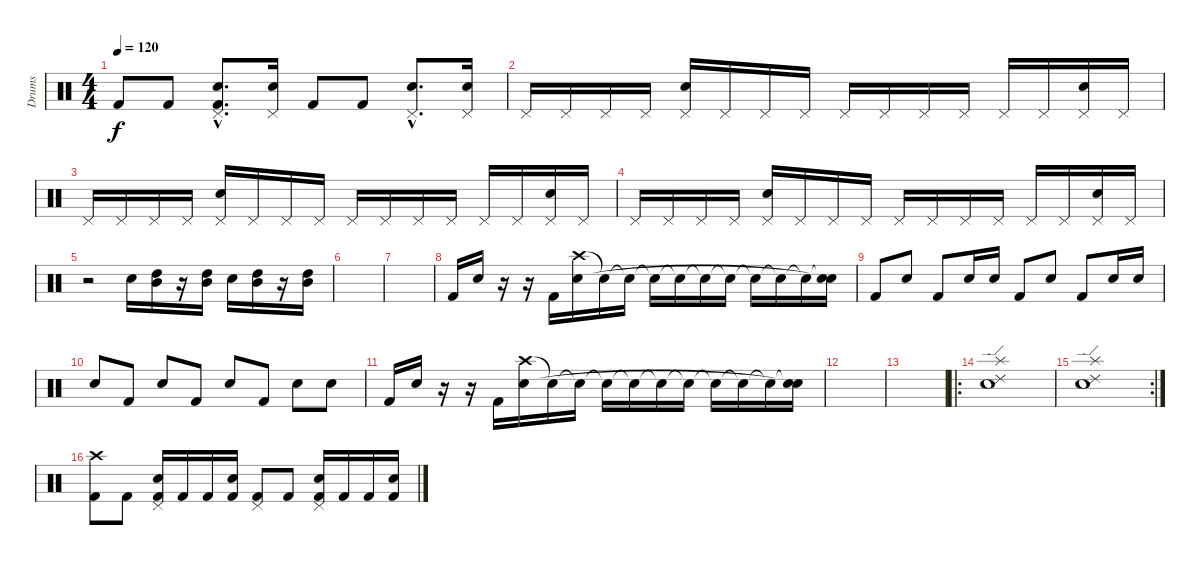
\track ("Drums" "Drums") {instrument percussion}
\staff {score}
\articulation defaults
\ts (4 4)
\tempo 120
\clef neutral
\ks c "Kick (hit) 2".8{dy f} "Kick (hit) 2".8
("Pedal Hi-Hat (hit)"{hac} "Electric Snare (hit)"{hac} "Kick (hit) 2"{hac}).8{d} ("Pedal Hi-Hat (hit)" "Electric Snare (hit)").16 "Kick (hit) 2".8 "Kick (hit) 2".8 ("Pedal Hi-Hat (hit)"{hac} "Electric Snare (hit)"{hac}).8{d} ("Pedal Hi-Hat (hit)" "Electric Snare (hit)").16 |
"Pedal Hi-Hat (hit)".16 "Pedal Hi-Hat (hit)".16 "Pedal Hi-Hat (hit)".16 "Pedal Hi-Hat (hit)".16 ("Pedal Hi-Hat (hit)" "Electric Snare (hit)").16 "Pedal Hi-Hat (hit)".16 "Pedal Hi-Hat (hit)".16 "Pedal Hi-Hat (hit)".16 "Pedal Hi-Hat (hit)".16 "Pedal Hi-Hat (hit)".16 "Pedal Hi-Hat (hit)".16 "Pedal Hi-Hat (hit)".16 "Pedal Hi-Hat (hit)".16 "Pedal Hi-Hat (hit)".16 ("Pedal Hi-Hat (hit)" "Electric Snare (hit)").16 "Pedal Hi-Hat (hit)".16 |
"Pedal Hi-Hat (hit)".16 "Pedal Hi-Hat (hit)".16 "Pedal Hi-Hat (hit)".16 "Pedal Hi-Hat (hit)".16 ("Pedal Hi-Hat (hit)" "Electric Snare (hit)").16 "Pedal Hi-Hat (hit)".16 "Pedal Hi-Hat (hit)".16 "Pedal Hi-Hat (hit)".16 "Pedal Hi-Hat (hit)".16 "Pedal Hi-Hat (hit)".16 "Pedal Hi-Hat (hit)".16 "Pedal Hi-Hat (hit)".16 "Pedal Hi-Hat (hit)".16 "Pedal Hi-Hat (hit)".16 ("Pedal Hi-Hat (hit)" "Electric Snare (hit)").16 "Pedal Hi-Hat (hit)".16 |
"Pedal Hi-Hat (hit)".16 "Pedal Hi-Hat (hit)".16 "Pedal Hi-Hat (hit)".16 "Pedal Hi-Hat (hit)".16 ("Pedal Hi-Hat (hit)" "Electric Snare (hit)").16 "Pedal Hi-Hat (hit)".16 "Pedal Hi-Hat (hit)".16 "Pedal Hi-Hat (hit)".16 "Pedal Hi-Hat (hit)".16 "Pedal Hi-Hat (hit)".16 "Pedal Hi-Hat (hit)".16 "Pedal Hi-Hat (hit)".16 "Pedal Hi-Hat (hit)".16 "Pedal Hi-Hat (hit)".16 ("Pedal Hi-Hat (hit)" "Electric Snare (hit)").16 "Pedal Hi-Hat (hit)".16 |
r.2 "Electric Snare (hit)".16 ("High Tom (hit)" "Mid Tom (hit)").16 r.16 ("High Tom (hit)" "Mid Tom (hit)").16 "Electric Snare (hit)".16 ("High Tom (hit)" "Mid Tom (hit)").16 r.16 ("High Tom (hit)" "Mid Tom (hit)").16 |
|
|
"Kick (hit) 2".16 "Electric Snare (hit)".16 r.16 r.16 "Kick (hit) 2".16 ("Crash high (hit)" "Electric Snare (hit)").16 "Snare (hit)"{t}.16 "Snare (hit)"{t}.16 "Snare (hit)"{t}.16 "Snare (hit)"{t}.16 "Snare (hit)"{t}.16 "Snare (hit)"{t}.16 "Snare (hit)"{t}.16 "Snare (hit)"{t}.16 "Snare (hit)"{t}.16 ("Snare (hit)"{t} "Snare (hit)"{t}).16 |
"Kick (hit) 2".8 "Electric Snare (hit)".8 "Kick (hit) 2".8 "Electric Snare (hit)".16 "Electric Snare (hit)".16 "Kick (hit) 2".8 "Electric Snare (hit)".8 "Kick (hit) 2".8 "Electric Snare (hit)".16 "Electric Snare (hit)".16 |
"Electric Snare (hit)".8 "Kick (hit) 2".8 "Electric Snare (hit)".8 "Kick (hit) 2".8 "Electric Snare (hit)".8 "Kick (hit) 2".8 "Electric Snare (hit)".8 "Electric Snare (hit)".8 |
"Kick (hit) 2".16 "Electric Snare (hit)".16 r.16 r.16 "Kick (hit) 2".16 ("Crash high (hit)" "Electric Snare (hit)").16 "Snare (hit)"{t}.16 "Snare (hit)"{t}.16 "Snare (hit)"{t}.16 "Snare (hit)"{t}.16 "Snare (hit)"{t}.16 "Snare (hit)"{t}.16 "Snare (hit)"{t}.16 "Snare (hit)"{t}.16 "Snare (hit)"{t}.16 ("Snare (hit)"{t} "Snare (hit)"{t}).16 |
|
|
\ro
("Splash (hit)" "Ride (edge) 2" "Electric Snare (hit)").1 |
\rc 2
("Splash (hit)" "Ride (edge) 2" "Electric Snare (hit)").1 |
("Crash high (hit)" "Kick (hit) 2").8 "Kick (hit) 2".8 ("Pedal Hi-Hat (hit)" "Electric Snare (hit)" "Kick (hit) 2").16 "Kick (hit) 2".16 "Kick (hit) 2".16 ("Electric Snare (hit)" "Kick (hit) 2").16 ("Pedal Hi-Hat (hit)" "Kick (hit) 2").8 "Kick (hit) 2".8 ("Pedal Hi-Hat (hit)" "Electric Snare (hit)" "Kick (hit) 2").16 "Kick (hit) 2".16 "Kick (hit) 2".16 ("Electric Snare (hit)" "Kick (hit) 2").16
